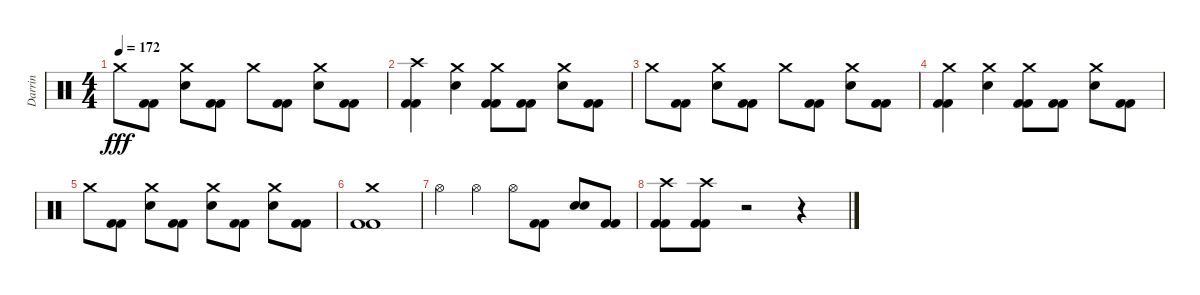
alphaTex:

\track ("Darrin" "Darrin") {instrument percussion}
\staff {score}
\articulation defaults
\ts (4 4)
\tempo 172
\clef neutral
\ks c "Crash medium (hit)".8{dy fff}
("Kick (hit) 2" "Kick (hit) 2").8 ("Crash medium (hit)" "Snare (hit) 2").8 ("Kick (hit) 2" "Kick (hit) 2").8 "Crash medium (hit)".8 ("Kick (hit) 2" "Kick (hit) 2").8 ("Crash medium (hit)" "Snare (hit) 2").8 ("Kick (hit) 2" "Kick (hit) 2").8 |
("Crash high (hit)" "Kick (hit) 2" "Kick (hit) 2").4 ("Crash medium (hit)" "Snare (hit) 2").4 ("Crash medium (hit)" "Kick (hit) 2" "Kick (hit) 2").8 ("Kick (hit) 2" "Kick (hit) 2").8 ("Crash medium (hit)" "Snare (hit) 2").8 ("Kick (hit) 2" "Kick (hit) 2").8 |
"Crash medium (hit)".8 ("Kick (hit) 2" "Kick (hit) 2").8 ("Crash medium (hit)" "Snare (hit) 2").8 ("Kick (hit) 2" "Kick (hit) 2").8 "Crash medium (hit)".8 ("Kick (hit) 2" "Kick (hit) 2").8 ("Crash medium (hit)" "Snare (hit) 2").8 ("Kick (hit) 2" "Kick (hit) 2").8 |
("Crash medium (hit)" "Kick (hit) 2" "Kick (hit) 2").4 ("Crash medium (hit)" "Snare (hit) 2").4 ("Crash medium (hit)" "Kick (hit) 2" "Kick (hit) 2").8 ("Kick (hit) 2" "Kick (hit) 2").8 ("Crash medium (hit)" "Snare (hit) 2").8 ("Kick (hit) 2" "Kick (hit) 2").8 |
"Crash medium (hit)".8 ("Kick (hit) 2" "Kick (hit) 2").8 ("Crash medium (hit)" "Snare (hit) 2").8 ("Kick (hit) 2" "Kick (hit) 2").8 ("Crash medium (hit)" "Snare (hit) 2").8 ("Kick (hit) 2" "Kick (hit) 2").8 ("Crash medium (hit)" "Snare (hit) 2").8 ("Kick (hit) 2" "Kick (hit) 2").8 |
("Crash medium (hit)" "Kick (hit) 2" "Kick (hit) 2").1 |
"Hi-Hat (open)".4 "Hi-Hat (open)".4 "Hi-Hat (open)".8 ("Kick (hit) 2" "Kick (hit) 2").8 ("Snare (hit) 2" "Snare (hit) 2").8 ("Kick (hit) 2" "Kick (hit) 2").8 |
("Crash high (hit)" "Kick (hit) 2" "Kick (hit) 2").8 ("Crash high (hit)" "Kick (hit) 2" "Kick (hit) 2").8 r.2 r.4
